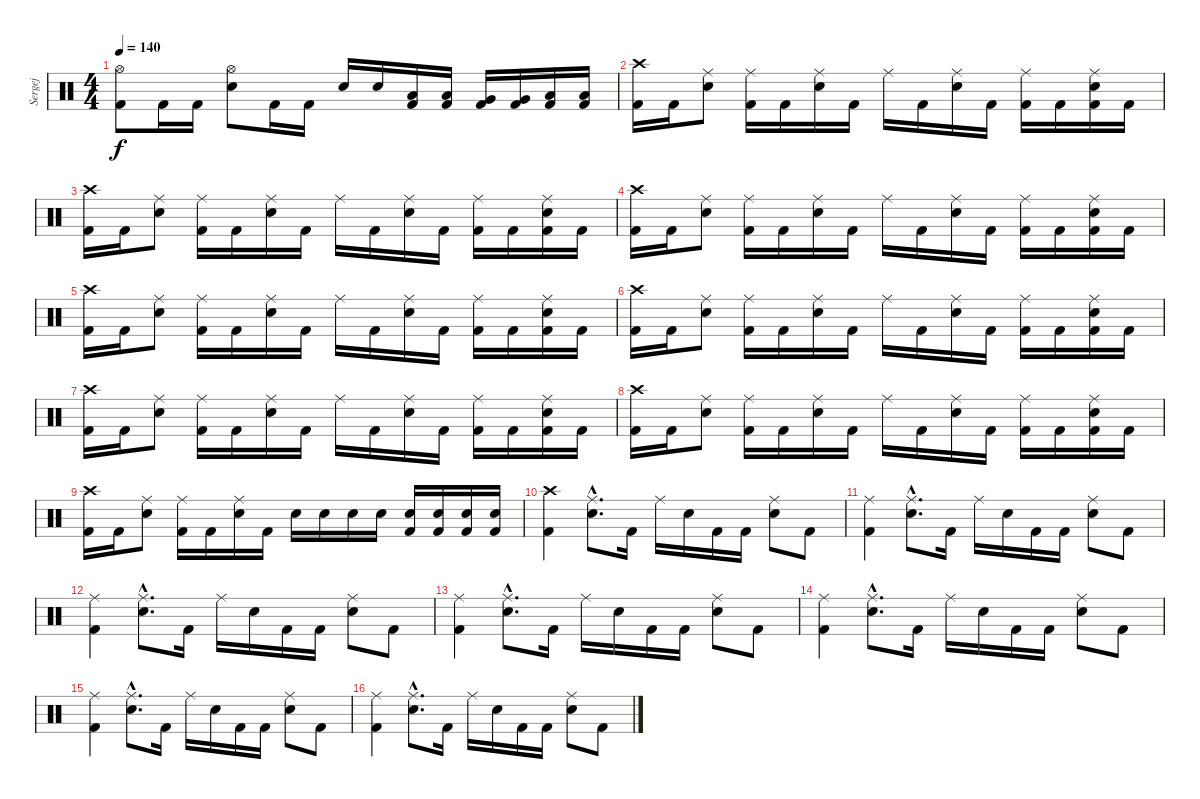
\track ("Sergej" "Sergej") {instrument percussion}
\staff {score}
\articulation defaults
\ts (4 4)
\tempo 140
\clef neutral
\ks c
("Hi-Hat (open)" "Kick (hit) 2").8{dy f} "Kick (hit) 2".16 "Kick (hit) 2".16 ("Hi-Hat (open)" "Snare (hit) 2").8 "Kick (hit) 2".16 "Kick (hit) 2".16 "Snare (hit) 2".16 "Snare (hit) 2".16 ("Kick (hit) 2" "Low Tom (hit)").16 ("Kick (hit) 2" "Low Tom (hit)").16 ("Kick (hit) 2" "Very Low Tom (hit)").16 ("Kick (hit) 2" "Very Low Tom (hit)").16 ("Kick (hit) 2" "Low Floor Tom (hit)").16 ("Kick (hit) 2" "Low Floor Tom (hit)").16 |
("Crash high (hit)" "Kick (hit) 2").16 "Kick (hit) 2".16 ("Ride (middle)" "Snare (hit) 2").8 ("Ride (middle)" "Kick (hit) 2").16 "Kick (hit) 2".16 ("Ride (middle)" "Snare (hit) 2").16 "Kick (hit) 2".16 "Ride (middle)".16 "Kick (hit) 2".16 ("Ride (middle)" "Snare (hit) 2").16 "Kick (hit) 2".16 ("Ride (middle)" "Kick (hit) 2").16 "Kick (hit) 2".16 ("Ride (middle)" "Snare (hit) 2" "Kick (hit) 2").16 "Kick (hit) 2".16 |
\section ("" "")
("Crash high (hit)" "Kick (hit) 2").16 "Kick (hit) 2".16 ("Ride (middle)" "Snare (hit) 2").8 ("Ride (middle)" "Kick (hit) 2").16 "Kick (hit) 2".16 ("Ride (middle)" "Snare (hit) 2").16 "Kick (hit) 2".16 "Ride (middle)".16 "Kick (hit) 2".16 ("Ride (middle)" "Snare (hit) 2").16 "Kick (hit) 2".16 ("Ride (middle)" "Kick (hit) 2").16 "Kick (hit) 2".16 ("Ride (middle)" "Snare (hit) 2" "Kick (hit) 2").16 "Kick (hit) 2".16 |
("Crash high (hit)" "Kick (hit) 2").16 "Kick (hit) 2".16 ("Ride (middle)" "Snare (hit) 2").8 ("Ride (middle)" "Kick (hit) 2").16 "Kick (hit) 2".16 ("Ride (middle)" "Snare (hit) 2").16 "Kick (hit) 2".16 "Ride (middle)".16 "Kick (hit) 2".16 ("Ride (middle)" "Snare (hit) 2").16 "Kick (hit) 2".16 ("Ride (middle)" "Kick (hit) 2").16 "Kick (hit) 2".16 ("Ride (middle)" "Snare (hit) 2" "Kick (hit) 2").16 "Kick (hit) 2".16 |
("Crash high (hit)" "Kick (hit) 2").16 "Kick (hit) 2".16 ("Ride (middle)" "Snare (hit) 2").8 ("Ride (middle)" "Kick (hit) 2").16 "Kick (hit) 2".16 ("Ride (middle)" "Snare (hit) 2").16 "Kick (hit) 2".16 "Ride (middle)".16 "Kick (hit) 2".16 ("Ride (middle)" "Snare (hit) 2").16 "Kick (hit) 2".16 ("Ride (middle)" "Kick (hit) 2").16 "Kick (hit) 2".16 ("Ride (middle)" "Snare (hit) 2" "Kick (hit) 2").16 "Kick (hit) 2".16 |
("Crash high (hit)" "Kick (hit) 2").16 "Kick (hit) 2".16 ("Ride (middle)" "Snare (hit) 2").8 ("Ride (middle)" "Kick (hit) 2").16 "Kick (hit) 2".16 ("Ride (middle)" "Snare (hit) 2").16 "Kick (hit) 2".16 "Ride (middle)".16 "Kick (hit) 2".16 ("Ride (middle)" "Snare (hit) 2").16 "Kick (hit) 2".16 ("Ride (middle)" "Kick (hit) 2").16 "Kick (hit) 2".16 ("Ride (middle)" "Snare (hit) 2" "Kick (hit) 2").16 "Kick (hit) 2".16 |
("Crash high (hit)" "Kick (hit) 2").16 "Kick (hit) 2".16 ("Ride (middle)" "Snare (hit) 2").8 ("Ride (middle)" "Kick (hit) 2").16 "Kick (hit) 2".16 ("Ride (middle)" "Snare (hit) 2").16 "Kick (hit) 2".16 "Ride (middle)".16 "Kick (hit) 2".16 ("Ride (middle)" "Snare (hit) 2").16 "Kick (hit) 2".16 ("Ride (middle)" "Kick (hit) 2").16 "Kick (hit) 2".16 ("Ride (middle)" "Snare (hit) 2" "Kick (hit) 2").16 "Kick (hit) 2".16 |
("Crash high (hit)" "Kick (hit) 2").16 "Kick (hit) 2".16 ("Ride (middle)" "Snare (hit) 2").8 ("Ride (middle)" "Kick (hit) 2").16 "Kick (hit) 2".16 ("Ride (middle)" "Snare (hit) 2").16 "Kick (hit) 2".16 "Ride (middle)".16 "Kick (hit) 2".16 ("Ride (middle)" "Snare (hit) 2").16 "Kick (hit) 2".16 ("Ride (middle)" "Kick (hit) 2").16 "Kick (hit) 2".16 ("Ride (middle)" "Snare (hit) 2" "Kick (hit) 2").16 "Kick (hit) 2".16 |
("Crash high (hit)" "Kick (hit) 2").16 "Kick (hit) 2".16 ("Ride (middle)" "Snare (hit) 2").8 ("Ride (middle)" "Kick (hit) 2").16 "Kick (hit) 2".16 ("Ride (middle)" "Snare (hit) 2").16 "Kick (hit) 2".16 "Snare (hit) 2".16 "Snare (hit) 2".16 "Snare (hit) 2".16 "Snare (hit) 2".16 ("Kick (hit) 2" "Snare (hit) 2").16 ("Kick (hit) 2" "Snare (hit) 2").16 ("Kick (hit) 2" "Snare (hit) 2").16 ("Kick (hit) 2" "Snare (hit) 2").16 |
("Crash high (hit)" "Kick (hit) 2").4 ("Ride (middle)"{hac} "Snare (hit) 2"{hac}).8{d} "Kick (hit) 2".16 "Ride (middle)".16 "Snare (hit) 2".16 "Kick (hit) 2".16 "Kick (hit) 2".16 ("Ride (middle)" "Snare (hit) 2").8 "Kick (hit) 2".8 |
("Ride (middle)" "Kick (hit) 2").4 ("Ride (middle)"{hac} "Snare (hit) 2"{hac}).8{d} "Kick (hit) 2".16 "Ride (middle)".16 "Snare (hit) 2".16 "Kick (hit) 2".16 "Kick (hit) 2".16 ("Ride (middle)" "Snare (hit) 2").8 "Kick (hit) 2".8 |
("Ride (middle)" "Kick (hit) 2").4 ("Ride (middle)"{hac} "Snare (hit) 2"{hac}).8{d} "Kick (hit) 2".16 "Ride (middle)".16 "Snare (hit) 2".16 "Kick (hit) 2".16 "Kick (hit) 2".16 ("Ride (middle)" "Snare (hit) 2").8 "Kick (hit) 2".8 |
("Ride (middle)" "Kick (hit) 2").4 ("Ride (middle)"{hac} "Snare (hit) 2"{hac}).8{d} "Kick (hit) 2".16 "Ride (middle)".16 "Snare (hit) 2".16 "Kick (hit) 2".16 "Kick (hit) 2".16 ("Ride (middle)" "Snare (hit) 2").8 "Kick (hit) 2".8 |
("Ride (middle)" "Kick (hit) 2").4 ("Ride (middle)"{hac} "Snare (hit) 2"{hac}).8{d} "Kick (hit) 2".16 "Ride (middle)".16 "Snare (hit) 2".16 "Kick (hit) 2".16 "Kick (hit) 2".16 ("Ride (middle)" "Snare (hit) 2").8 "Kick (hit) 2".8 |
("Ride (middle)" "Kick (hit) 2").4 ("Ride (middle)"{hac} "Snare (hit) 2"{hac}).8{d} "Kick (hit) 2".16 "Ride (middle)".16 "Snare (hit) 2".16 "Kick (hit) 2".16 "Kick (hit) 2".16 ("Ride (middle)" "Snare (hit) 2").8 "Kick (hit) 2".8 |
("Ride (middle)" "Kick (hit) 2").4 ("Ride (middle)"{hac} "Snare (hit) 2"{hac}).8{d} "Kick (hit) 2".16 "Ride (middle)".16 "Snare (hit) 2".16 "Kick (hit) 2".16 "Kick (hit) 2".16 ("Ride (middle)" "Snare (hit) 2").8 "Kick (hit) 2".8
